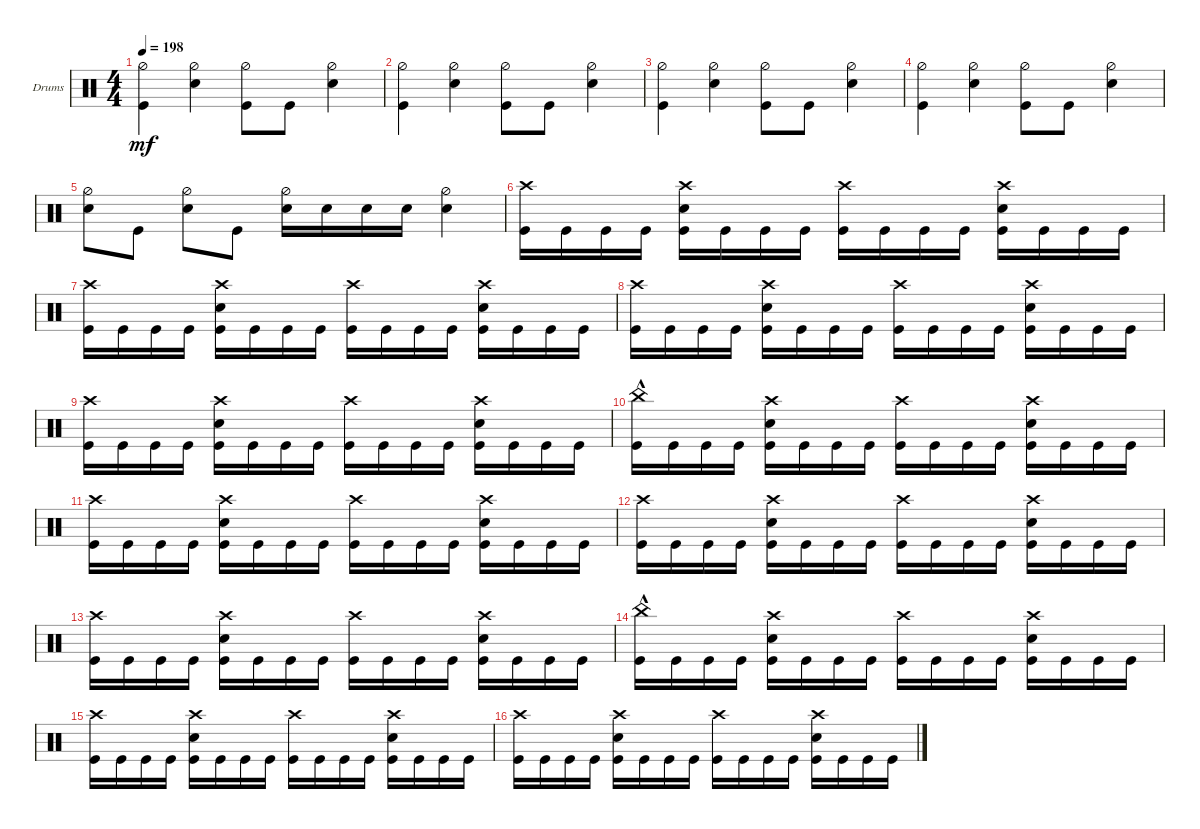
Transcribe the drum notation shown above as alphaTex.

\bracketExtendMode groupsimilarinstruments
\firstSystemTrackNameOrientation horizontal
\otherSystemsTrackNameOrientation horizontal
\track ("Drumkit" "Drums") {instrument percussion}
\staff {score}
\articulation defaults
\ts (4 4)
\tempo 198
\clef neutral
\ks c
("Kick (hit)" "Hi-Hat (half)").4{dy mf} ("Snare (hit) 2" "Hi-Hat (half)").4 ("Kick (hit)" "Hi-Hat (half)").8 "Kick (hit)".8 ("Snare (hit) 2" "Hi-Hat (half)").4 |
("Kick (hit)" "Hi-Hat (half)").4 ("Snare (hit) 2" "Hi-Hat (half)").4 ("Kick (hit)" "Hi-Hat (half)").8 "Kick (hit)".8 ("Snare (hit) 2" "Hi-Hat (half)").4 |
("Kick (hit)" "Hi-Hat (half)").4 ("Snare (hit) 2" "Hi-Hat (half)").4 ("Kick (hit)" "Hi-Hat (half)").8 "Kick (hit)".8 ("Snare (hit) 2" "Hi-Hat (half)").4 |
("Kick (hit)" "Hi-Hat (half)").4 ("Snare (hit) 2" "Hi-Hat (half)").4 ("Kick (hit)" "Hi-Hat (half)").8 "Kick (hit)".8 ("Snare (hit) 2" "Hi-Hat (half)").4 |
("Snare (hit) 2" "Hi-Hat (half)").8 "Kick (hit)".8 ("Snare (hit) 2" "Hi-Hat (half)").8 "Kick (hit)".8 ("Snare (hit) 2" "Hi-Hat (half)").16 "Snare (hit) 2".16 "Snare (hit) 2".16 "Snare (hit) 2".16 ("Snare (hit) 2" "Hi-Hat (half)").4 |
\section ("" "")
("Kick (hit)" "Crash high (hit)").16 "Kick (hit)".16 "Kick (hit)".16 "Kick (hit)".16 ("Kick (hit)" "Snare (hit) 2" "Crash high (hit)").16 "Kick (hit)".16 "Kick (hit)".16 "Kick (hit)".16 ("Kick (hit)" "Crash high (hit)").16 "Kick (hit)".16 "Kick (hit)".16 "Kick (hit)".16 ("Kick (hit)" "Snare (hit) 2" "Crash high (hit)").16 "Kick (hit)".16 "Kick (hit)".16 "Kick (hit)".16 |
("Kick (hit)" "Crash high (hit)").16 "Kick (hit)".16 "Kick (hit)".16 "Kick (hit)".16 ("Kick (hit)" "Snare (hit) 2" "Crash high (hit)").16 "Kick (hit)".16 "Kick (hit)".16 "Kick (hit)".16 ("Kick (hit)" "Crash high (hit)").16 "Kick (hit)".16 "Kick (hit)".16 "Kick (hit)".16 ("Kick (hit)" "Snare (hit) 2" "Crash high (hit)").16 "Kick (hit)".16 "Kick (hit)".16 "Kick (hit)".16 |
("Kick (hit)" "Crash high (hit)").16 "Kick (hit)".16 "Kick (hit)".16 "Kick (hit)".16 ("Kick (hit)" "Snare (hit) 2" "Crash high (hit)").16 "Kick (hit)".16 "Kick (hit)".16 "Kick (hit)".16 ("Kick (hit)" "Crash high (hit)").16 "Kick (hit)".16 "Kick (hit)".16 "Kick (hit)".16 ("Kick (hit)" "Snare (hit) 2" "Crash high (hit)").16 "Kick (hit)".16 "Kick (hit)".16 "Kick (hit)".16 |
("Kick (hit)" "Crash high (hit)").16 "Kick (hit)".16 "Kick (hit)".16 "Kick (hit)".16 ("Kick (hit)" "Snare (hit) 2" "Crash high (hit)").16 "Kick (hit)".16 "Kick (hit)".16 "Kick (hit)".16 ("Kick (hit)" "Crash high (hit)").16 "Kick (hit)".16 "Kick (hit)".16 "Kick (hit)".16 ("Kick (hit)" "Snare (hit) 2" "Crash high (hit)").16 "Kick (hit)".16 "Kick (hit)".16 "Kick (hit)".16 |
("Kick (hit)" "China (hit)"{hac}).16 "Kick (hit)".16 "Kick (hit)".16 "Kick (hit)".16 ("Kick (hit)" "Snare (hit) 2" "Crash high (hit)").16 "Kick (hit)".16 "Kick (hit)".16 "Kick (hit)".16 ("Kick (hit)" "Crash high (hit)").16 "Kick (hit)".16 "Kick (hit)".16 "Kick (hit)".16 ("Kick (hit)" "Snare (hit) 2" "Crash high (hit)").16 "Kick (hit)".16 "Kick (hit)".16 "Kick (hit)".16 |
("Kick (hit)" "Crash high (hit)").16 "Kick (hit)".16 "Kick (hit)".16 "Kick (hit)".16 ("Kick (hit)" "Snare (hit) 2" "Crash high (hit)").16 "Kick (hit)".16 "Kick (hit)".16 "Kick (hit)".16 ("Kick (hit)" "Crash high (hit)").16 "Kick (hit)".16 "Kick (hit)".16 "Kick (hit)".16 ("Kick (hit)" "Snare (hit) 2" "Crash high (hit)").16 "Kick (hit)".16 "Kick (hit)".16 "Kick (hit)".16 |
("Kick (hit)" "Crash high (hit)").16 "Kick (hit)".16 "Kick (hit)".16 "Kick (hit)".16 ("Kick (hit)" "Snare (hit) 2" "Crash high (hit)").16 "Kick (hit)".16 "Kick (hit)".16 "Kick (hit)".16 ("Kick (hit)" "Crash high (hit)").16 "Kick (hit)".16 "Kick (hit)".16 "Kick (hit)".16 ("Kick (hit)" "Snare (hit) 2" "Crash high (hit)").16 "Kick (hit)".16 "Kick (hit)".16 "Kick (hit)".16 |
("Kick (hit)" "Crash high (hit)").16 "Kick (hit)".16 "Kick (hit)".16 "Kick (hit)".16 ("Kick (hit)" "Snare (hit) 2" "Crash high (hit)").16 "Kick (hit)".16 "Kick (hit)".16 "Kick (hit)".16 ("Kick (hit)" "Crash high (hit)").16 "Kick (hit)".16 "Kick (hit)".16 "Kick (hit)".16 ("Kick (hit)" "Snare (hit) 2" "Crash high (hit)").16 "Kick (hit)".16 "Kick (hit)".16 "Kick (hit)".16 |
("Kick (hit)" "China (hit)"{hac}).16 "Kick (hit)".16 "Kick (hit)".16 "Kick (hit)".16 ("Kick (hit)" "Snare (hit) 2" "Crash high (hit)").16 "Kick (hit)".16 "Kick (hit)".16 "Kick (hit)".16 ("Kick (hit)" "Crash high (hit)").16 "Kick (hit)".16 "Kick (hit)".16 "Kick (hit)".16 ("Kick (hit)" "Snare (hit) 2" "Crash high (hit)").16 "Kick (hit)".16 "Kick (hit)".16 "Kick (hit)".16 |
("Kick (hit)" "Crash high (hit)").16 "Kick (hit)".16 "Kick (hit)".16 "Kick (hit)".16 ("Kick (hit)" "Snare (hit) 2" "Crash high (hit)").16 "Kick (hit)".16 "Kick (hit)".16 "Kick (hit)".16 ("Kick (hit)" "Crash high (hit)").16 "Kick (hit)".16 "Kick (hit)".16 "Kick (hit)".16 ("Kick (hit)" "Snare (hit) 2" "Crash high (hit)").16 "Kick (hit)".16 "Kick (hit)".16 "Kick (hit)".16 |
("Kick (hit)" "Crash high (hit)").16 "Kick (hit)".16 "Kick (hit)".16 "Kick (hit)".16 ("Kick (hit)" "Snare (hit) 2" "Crash high (hit)").16 "Kick (hit)".16 "Kick (hit)".16 "Kick (hit)".16 ("Kick (hit)" "Crash high (hit)").16 "Kick (hit)".16 "Kick (hit)".16 "Kick (hit)".16 ("Kick (hit)" "Snare (hit) 2" "Crash high (hit)").16 "Kick (hit)".16 "Kick (hit)".16 "Kick (hit)".16
